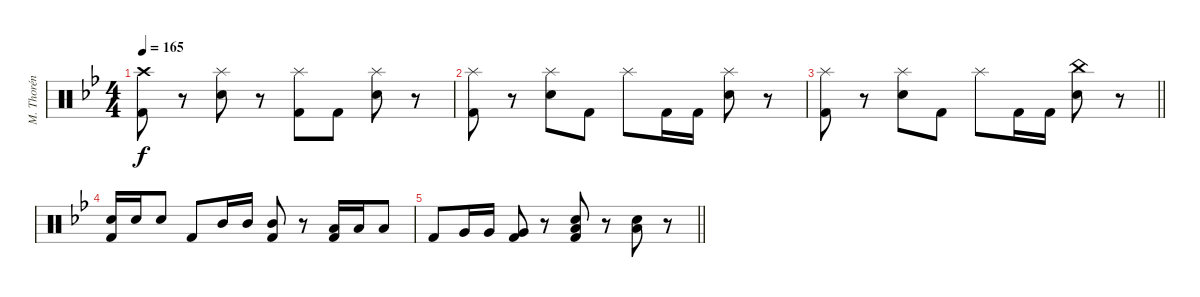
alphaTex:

\track ("M. Thorén (Drums)" "M. Thorén ") {instrument percussion}
\staff {score}
\articulation defaults
\ts (4 4)
\tempo 165
\clef neutral
\ks gminor
("Crash high (hit)" "Kick (hit) 2").8{dy f} r.8 ("Splash (hit)" "Electric Snare (hit)").8 r.8 ("Splash (hit)" "Kick (hit) 2").8 "Kick (hit) 2".8 ("Splash (hit)" "Electric Snare (hit)").8 r.8 |
("Splash (hit)" "Kick (hit) 2").8 r.8 ("Splash (hit)" "Electric Snare (hit)").8 "Kick (hit) 2".8 "Splash (hit)".8 "Kick (hit) 2".16 "Kick (hit) 2".16 ("Splash (hit)" "Electric Snare (hit)").8 r.8 |
\barLineRight lightlight
("Splash (hit)" "Kick (hit) 2").8 r.8 ("Splash (hit)" "Electric Snare (hit)").8 "Kick (hit) 2".8 "Splash (hit)".8 "Kick (hit) 2".16 "Kick (hit) 2".16 ("China (hit)" "Electric Snare (hit)").8 r.8 |
("Electric Snare (hit)" "Kick (hit) 2").16 "Electric Snare (hit)".16 "Electric Snare (hit)".8 "Kick (hit) 2".8 "Mid Tom (hit)".16 "Mid Tom (hit)".16 ("Mid Tom (hit)" "Kick (hit) 2").8 r.8 ("Low Tom (hit)" "Kick (hit) 2").16 "Low Tom (hit)".16 "Low Tom (hit)".8 |
\barLineRight lightlight "Kick (hit) 2".8 "Very Low Tom (hit)".16 "Very Low Tom (hit)".16
("Very Low Tom (hit)" "Kick (hit) 2").8 r.8 ("Electric Snare (hit)" "Low Floor Tom (hit)" "Kick (hit) 2").8 r.8 ("Electric Snare (hit)" "Low Floor Tom (hit)").8 r.8
